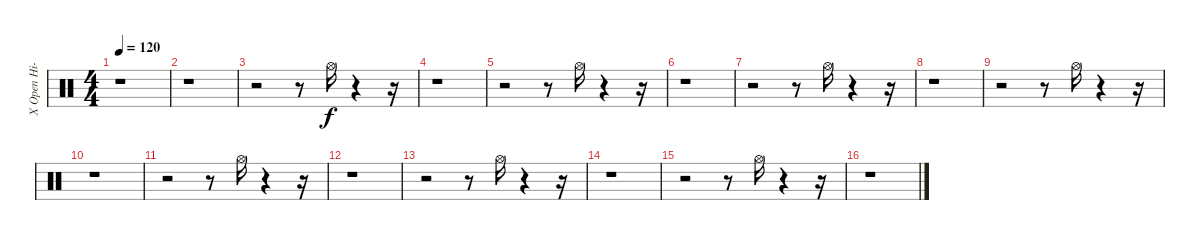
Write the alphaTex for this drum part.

\track ("X Open Hi-Hat       " "X Open Hi-") {instrument percussion}
\staff {score}
\articulation defaults
\ts (4 4)
\tempo 120
\clef neutral
\ks c
r.1{dy f} |
r.1 |
r.2 r.8 "Hi-Hat (open)".16 r.4 r.16 |
r.1 |
r.2 r.8 "Hi-Hat (open)".16 r.4 r.16 |
r.1 |
r.2 r.8 "Hi-Hat (open)".16 r.4 r.16 |
r.1 |
r.2 r.8 "Hi-Hat (open)".16 r.4 r.16 |
r.1 |
r.2 r.8 "Hi-Hat (open)".16 r.4 r.16 |
r.1 |
r.2 r.8 "Hi-Hat (open)".16 r.4 r.16 |
r.1 |
r.2 r.8 "Hi-Hat (open)".16 r.4 r.16 |
r.1
